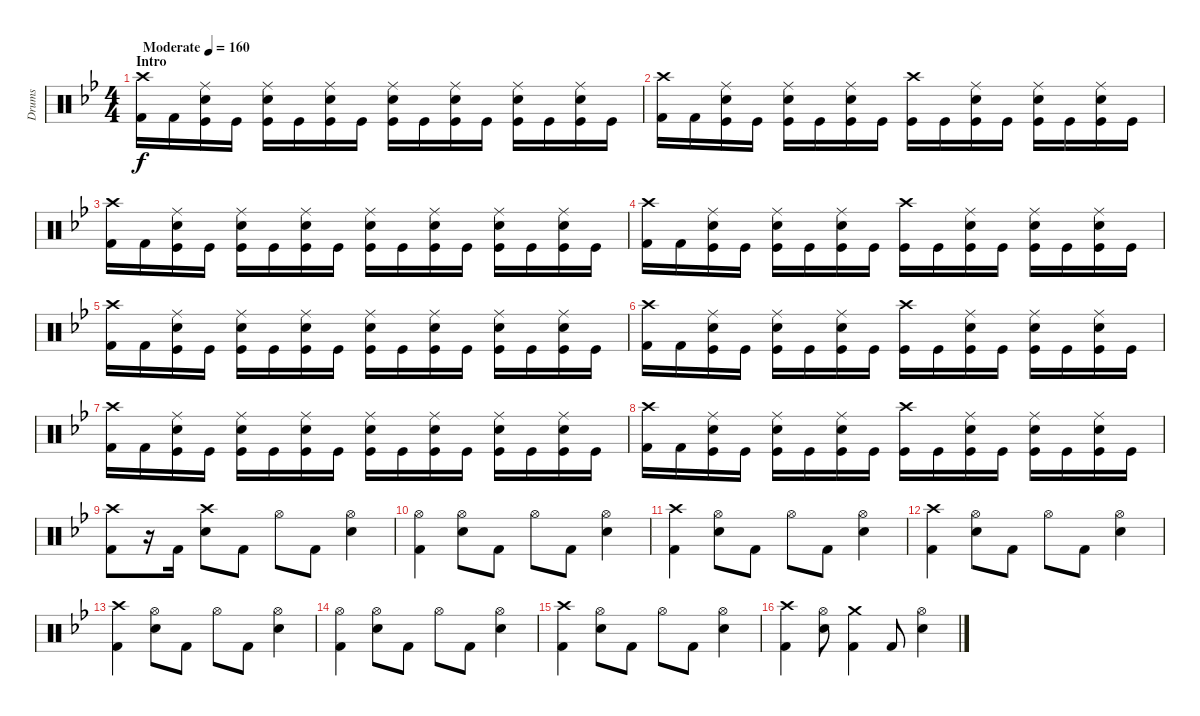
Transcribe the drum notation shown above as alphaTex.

\track ("Drums" "Drums") {instrument percussion}
\staff {score}
\articulation defaults
\ts (4 4)
\section ("" "Intro")
\tempo (160 "Moderate")
\clef neutral
\ks bb
("Crash high (hit)" "Kick (hit) 2").16{dy f} "Kick (hit) 2".16 ("Ride (middle)" "Snare (hit) 2" "Kick (hit)").16 "Kick (hit)".16 ("Ride (middle)" "Snare (hit) 2" "Kick (hit)").16 "Kick (hit)".16 ("Ride (middle)" "Snare (hit) 2" "Kick (hit)").16 "Kick (hit)".16 ("Ride (middle)" "Snare (hit) 2" "Kick (hit)").16 "Kick (hit)".16 ("Ride (middle)" "Snare (hit) 2" "Kick (hit)").16 "Kick (hit)".16 ("Ride (middle)" "Snare (hit) 2" "Kick (hit)").16 "Kick (hit)".16 ("Ride (middle)" "Snare (hit) 2" "Kick (hit)").16 "Kick (hit)".16 |
("Crash high (hit)" "Kick (hit) 2").16 "Kick (hit) 2".16 ("Ride (middle)" "Snare (hit) 2" "Kick (hit)").16 "Kick (hit)".16 ("Ride (middle)" "Snare (hit) 2" "Kick (hit)").16 "Kick (hit)".16 ("Ride (middle)" "Snare (hit) 2" "Kick (hit)").16 "Kick (hit)".16 ("Crash high (hit)" "Kick (hit)").16 "Kick (hit)".16 ("Ride (middle)" "Snare (hit) 2" "Kick (hit)").16 "Kick (hit)".16 ("Ride (middle)" "Snare (hit) 2" "Kick (hit)").16 "Kick (hit)".16 ("Ride (middle)" "Snare (hit) 2" "Kick (hit)").16 "Kick (hit)".16 |
("Crash high (hit)" "Kick (hit) 2").16 "Kick (hit) 2".16 ("Ride (middle)" "Snare (hit) 2" "Kick (hit)").16 "Kick (hit)".16 ("Ride (middle)" "Snare (hit) 2" "Kick (hit)").16 "Kick (hit)".16 ("Ride (middle)" "Snare (hit) 2" "Kick (hit)").16 "Kick (hit)".16 ("Ride (middle)" "Snare (hit) 2" "Kick (hit)").16 "Kick (hit)".16 ("Ride (middle)" "Snare (hit) 2" "Kick (hit)").16 "Kick (hit)".16 ("Ride (middle)" "Snare (hit) 2" "Kick (hit)").16 "Kick (hit)".16 ("Ride (middle)" "Snare (hit) 2" "Kick (hit)").16 "Kick (hit)".16 |
("Crash high (hit)" "Kick (hit) 2").16 "Kick (hit) 2".16 ("Ride (middle)" "Snare (hit) 2" "Kick (hit)").16 "Kick (hit)".16 ("Ride (middle)" "Snare (hit) 2" "Kick (hit)").16 "Kick (hit)".16 ("Ride (middle)" "Snare (hit) 2" "Kick (hit)").16 "Kick (hit)".16 ("Crash high (hit)" "Kick (hit)").16 "Kick (hit)".16 ("Ride (middle)" "Snare (hit) 2" "Kick (hit)").16 "Kick (hit)".16 ("Ride (middle)" "Snare (hit) 2" "Kick (hit)").16 "Kick (hit)".16 ("Ride (middle)" "Snare (hit) 2" "Kick (hit)").16 "Kick (hit)".16 |
("Crash high (hit)" "Kick (hit) 2").16 "Kick (hit) 2".16 ("Ride (middle)" "Snare (hit) 2" "Kick (hit)").16 "Kick (hit)".16 ("Ride (middle)" "Snare (hit) 2" "Kick (hit)").16 "Kick (hit)".16 ("Ride (middle)" "Snare (hit) 2" "Kick (hit)").16 "Kick (hit)".16 ("Ride (middle)" "Snare (hit) 2" "Kick (hit)").16 "Kick (hit)".16 ("Ride (middle)" "Snare (hit) 2" "Kick (hit)").16 "Kick (hit)".16 ("Ride (middle)" "Snare (hit) 2" "Kick (hit)").16 "Kick (hit)".16 ("Ride (middle)" "Snare (hit) 2" "Kick (hit)").16 "Kick (hit)".16 |
("Crash high (hit)" "Kick (hit) 2").16 "Kick (hit) 2".16 ("Ride (middle)" "Snare (hit) 2" "Kick (hit)").16 "Kick (hit)".16 ("Ride (middle)" "Snare (hit) 2" "Kick (hit)").16 "Kick (hit)".16 ("Ride (middle)" "Snare (hit) 2" "Kick (hit)").16 "Kick (hit)".16 ("Crash high (hit)" "Kick (hit)").16 "Kick (hit)".16 ("Ride (middle)" "Snare (hit) 2" "Kick (hit)").16 "Kick (hit)".16 ("Ride (middle)" "Snare (hit) 2" "Kick (hit)").16 "Kick (hit)".16 ("Ride (middle)" "Snare (hit) 2" "Kick (hit)").16 "Kick (hit)".16 |
("Crash high (hit)" "Kick (hit) 2").16 "Kick (hit) 2".16 ("Ride (middle)" "Snare (hit) 2" "Kick (hit)").16 "Kick (hit)".16 ("Ride (middle)" "Snare (hit) 2" "Kick (hit)").16 "Kick (hit)".16 ("Ride (middle)" "Snare (hit) 2" "Kick (hit)").16 "Kick (hit)".16 ("Ride (middle)" "Snare (hit) 2" "Kick (hit)").16 "Kick (hit)".16 ("Ride (middle)" "Snare (hit) 2" "Kick (hit)").16 "Kick (hit)".16 ("Ride (middle)" "Snare (hit) 2" "Kick (hit)").16 "Kick (hit)".16 ("Ride (middle)" "Snare (hit) 2" "Kick (hit)").16 "Kick (hit)".16 |
("Crash high (hit)" "Kick (hit) 2").16 "Kick (hit) 2".16 ("Ride (middle)" "Snare (hit) 2" "Kick (hit)").16 "Kick (hit)".16 ("Ride (middle)" "Snare (hit) 2" "Kick (hit)").16 "Kick (hit)".16 ("Ride (middle)" "Snare (hit) 2" "Kick (hit)").16 "Kick (hit)".16 ("Crash high (hit)" "Kick (hit)").16 "Kick (hit)".16 ("Ride (middle)" "Snare (hit) 2" "Kick (hit)").16 "Kick (hit)".16 ("Ride (middle)" "Snare (hit) 2" "Kick (hit)").16 "Kick (hit)".16 ("Ride (middle)" "Snare (hit) 2" "Kick (hit)").16 "Kick (hit)".16 |
("Crash high (hit)" "Kick (hit) 2").8 r.16 "Kick (hit) 2".16 ("Crash high (hit)" "Snare (hit) 2").8 "Kick (hit) 2".8 "Hi-Hat (open)".8 "Kick (hit) 2".8 ("Hi-Hat (open)" "Snare (hit) 2").4 |
("Hi-Hat (open)" "Kick (hit) 2").4 ("Hi-Hat (open)" "Snare (hit) 2").8 "Kick (hit) 2".8 "Hi-Hat (open)".8 "Kick (hit) 2".8 ("Hi-Hat (open)" "Snare (hit) 2").4 |
("Crash high (hit)" "Kick (hit) 2").4 ("Hi-Hat (open)" "Snare (hit) 2").8 "Kick (hit) 2".8 "Hi-Hat (open)".8 "Kick (hit) 2".8 ("Hi-Hat (open)" "Snare (hit) 2").4 |
("Crash high (hit)" "Kick (hit) 2").4 ("Hi-Hat (open)" "Snare (hit) 2").8 "Kick (hit) 2".8 "Hi-Hat (open)".8 "Kick (hit) 2".8 ("Hi-Hat (open)" "Snare (hit) 2").4 |
("Crash high (hit)" "Kick (hit) 2").4 ("Hi-Hat (open)" "Snare (hit) 2").8 "Kick (hit) 2".8 "Hi-Hat (open)".8 "Kick (hit) 2".8 ("Hi-Hat (open)" "Snare (hit) 2").4 |
("Hi-Hat (open)" "Kick (hit) 2").4 ("Hi-Hat (open)" "Snare (hit) 2").8 "Kick (hit) 2".8 "Hi-Hat (open)".8 "Kick (hit) 2".8 ("Hi-Hat (open)" "Snare (hit) 2").4 |
("Crash high (hit)" "Kick (hit) 2").4 ("Hi-Hat (open)" "Snare (hit) 2").8 "Kick (hit) 2".8 "Hi-Hat (open)".8 "Kick (hit) 2".8 ("Hi-Hat (open)" "Snare (hit) 2").4 |
("Crash high (hit)" "Kick (hit) 2").4 ("Hi-Hat (open)" "Snare (hit) 2").8 ("Crash medium (hit)" "Kick (hit) 2").4 "Kick (hit) 2".8 ("Hi-Hat (open)" "Snare (hit) 2").4
